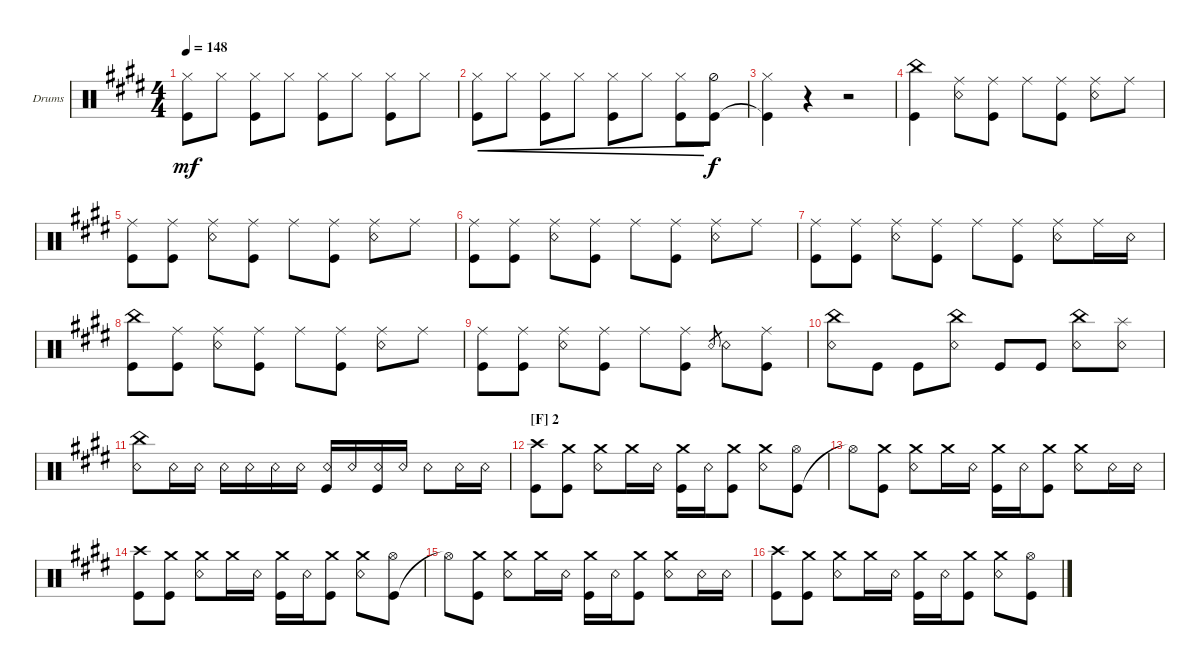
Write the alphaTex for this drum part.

\bracketExtendMode groupsimilarinstruments
\firstSystemTrackNameOrientation horizontal
\otherSystemsTrackNameOrientation horizontal
\track ("Ichigo" "Drums") {instrument percussion}
\staff {score}
\articulation defaults
\ts (4 4)
\tempo 148
\clef neutral
\ks e
("Hi-Hat (closed)" "Kick (hit)").8{dy mf} "Hi-Hat (closed)".8 ("Hi-Hat (closed)" "Kick (hit)").8 "Hi-Hat (closed)".8 ("Hi-Hat (closed)" "Kick (hit)").8 "Hi-Hat (closed)".8 ("Hi-Hat (closed)" "Kick (hit)").8 "Hi-Hat (closed)".8 |
("Hi-Hat (closed)" "Kick (hit)").8{cre} "Hi-Hat (closed)".8{cre} ("Hi-Hat (closed)" "Kick (hit)").8{cre} "Hi-Hat (closed)".8{cre} ("Hi-Hat (closed)" "Kick (hit)").8{cre} "Hi-Hat (closed)".8{cre} ("Hi-Hat (closed)" "Kick (hit)").8{cre} ("Hi-Hat (half)" "Kick (hit)").8{dy f} |
("Hi-Hat (closed)" "Kick (hit)"{t}).4 r.4 r.2 |
("Kick (hit)" "China (hit)").4 ("Snare (rim shot)" "Ride (middle)").8 ("Ride (middle)" "Kick (hit)").8 "Ride (middle)".8 ("Ride (middle)" "Kick (hit)").8 ("Ride (middle)" "Snare (rim shot)").8 "Ride (middle)".8 |
("Ride (middle)" "Kick (hit)").8 ("Ride (middle)" "Kick (hit)").8 ("Ride (middle)" "Snare (rim shot)").8 ("Ride (middle)" "Kick (hit)").8 "Ride (middle)".8 ("Ride (middle)" "Kick (hit)").8 ("Ride (middle)" "Snare (rim shot)").8 "Ride (middle)".8 |
("Ride (middle)" "Kick (hit)").8 ("Ride (middle)" "Kick (hit)").8 ("Ride (middle)" "Snare (rim shot)").8 ("Ride (middle)" "Kick (hit)").8 "Ride (middle)".8 ("Ride (middle)" "Kick (hit)").8 ("Ride (middle)" "Snare (rim shot)").8 "Ride (middle)".8 |
("Ride (middle)" "Kick (hit)").8 ("Ride (middle)" "Kick (hit)").8 ("Ride (middle)" "Snare (rim shot)").8 ("Ride (middle)" "Kick (hit)").8 "Ride (middle)".8 ("Ride (middle)" "Kick (hit)").8 ("Ride (middle)" "Snare (rim shot)").8 "Ride (middle)".16 "Snare (rim shot)".16 |
("Kick (hit)" "China (hit)").8 ("Ride (middle)" "Kick (hit)").8 ("Ride (middle)" "Snare (rim shot)").8 ("Ride (middle)" "Kick (hit)").8 "Ride (middle)".8 ("Ride (middle)" "Kick (hit)").8 ("Ride (middle)" "Snare (rim shot)").8 "Ride (middle)".8 |
("Ride (middle)" "Kick (hit)").8 ("Ride (middle)" "Kick (hit)").8 ("Ride (middle)" "Snare (rim shot)").8 ("Ride (middle)" "Kick (hit)").8 "Ride (middle)".8 ("Ride (middle)" "Kick (hit)").8 "Snare (rim shot)".8{gr} "Snare (rim shot)".8 ("Ride (middle)" "Kick (hit)").8 |
("China (hit)" "Snare (rim shot)").8 "Kick (hit)".8 "Kick (hit)".8 ("Snare (rim shot)" "China (hit)").8 "Kick (hit)".8 "Kick (hit)".8 ("Snare (rim shot)" "China (hit)").8 ("Snare (rim shot)" "Splash (hit)").8 |
("Snare (rim shot)" "China (hit)").8 "Snare (rim shot)".16 "Snare (rim shot)".16 "Snare (rim shot)".16 "Snare (rim shot)".16 "Snare (rim shot)".16 "Snare (rim shot)".16 ("Snare (rim shot)" "Kick (hit)").16 "Snare (rim shot)".16 ("Snare (rim shot)" "Kick (hit)").16 "Snare (rim shot)".16 "Snare (rim shot)".8 "Snare (rim shot)".16 "Snare (rim shot)".16 |
\section ("F" "2")
("Kick (hit)" "Crash high (hit)").8 ("Kick (hit)" "Crash medium (hit)").8 ("Snare (rim shot)" "Crash medium (hit)").8 "Crash medium (hit)".16 "Snare (rim shot)".16 ("Kick (hit)" "Crash medium (hit)").16 "Snare (rim shot)".16 ("Kick (hit)" "Crash medium (hit)").8 ("Snare (rim shot)" "Crash medium (hit)").8 ("Kick (hit)" "Hi-Hat (open)").8 |
"Hi-Hat (open)"{t}.8 ("Kick (hit)" "Crash medium (hit)").8 ("Snare (rim shot)" "Crash medium (hit)").8 "Crash medium (hit)".16 "Snare (rim shot)".16 ("Kick (hit)" "Crash medium (hit)").16 "Snare (rim shot)".16 ("Kick (hit)" "Crash medium (hit)").8 ("Snare (rim shot)" "Crash medium (hit)").8 "Snare (rim shot)".16 "Snare (rim shot)".16 |
("Kick (hit)" "Crash high (hit)").8 ("Kick (hit)" "Crash medium (hit)").8 ("Snare (rim shot)" "Crash medium (hit)").8 "Crash medium (hit)".16 "Snare (rim shot)".16 ("Kick (hit)" "Crash medium (hit)").16 "Snare (rim shot)".16 ("Kick (hit)" "Crash medium (hit)").8 ("Snare (rim shot)" "Crash medium (hit)").8 ("Kick (hit)" "Hi-Hat (open)").8 |
"Hi-Hat (open)"{t}.8 ("Kick (hit)" "Crash medium (hit)").8 ("Snare (rim shot)" "Crash medium (hit)").8 "Crash medium (hit)".16 "Snare (rim shot)".16 ("Kick (hit)" "Crash medium (hit)").16 "Snare (rim shot)".16 ("Kick (hit)" "Crash medium (hit)").8 ("Snare (rim shot)" "Crash medium (hit)").8 "Snare (rim shot)".16 "Snare (rim shot)".16 |
("Kick (hit)" "Crash high (hit)").8 ("Kick (hit)" "Crash medium (hit)").8 ("Snare (rim shot)" "Crash medium (hit)").8 "Crash medium (hit)".16 "Snare (rim shot)".16 ("Kick (hit)" "Crash medium (hit)").16 "Snare (rim shot)".16 ("Kick (hit)" "Crash medium (hit)").8 ("Snare (rim shot)" "Crash medium (hit)").8 ("Kick (hit)" "Hi-Hat (open)").8
